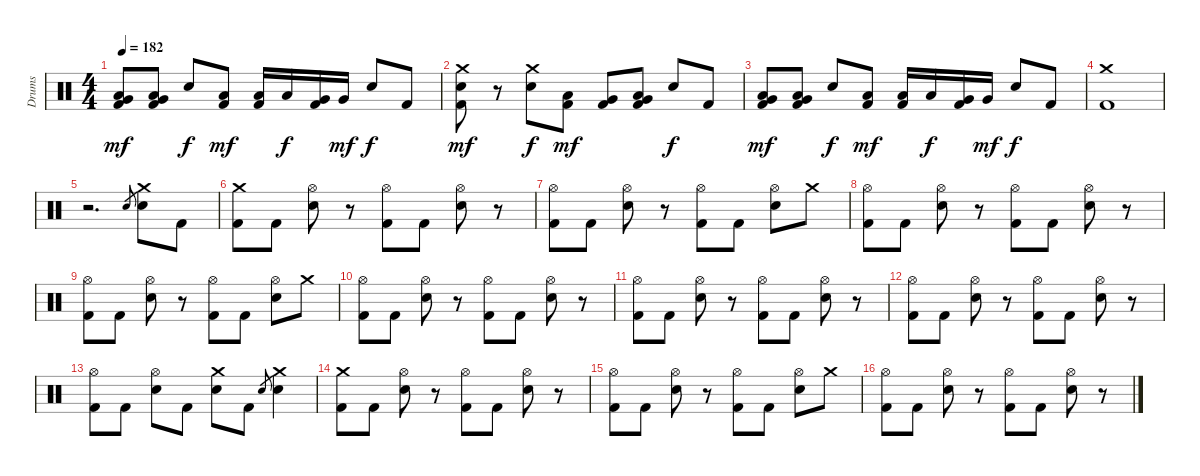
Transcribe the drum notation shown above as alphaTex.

\track ("Drums" "Drums") {instrument percussion}
\staff {score}
\articulation defaults
\ts (4 4)
\tempo 182
\clef neutral
\ks c
("Low Tom (hit)" "Very Low Tom (hit)" "Kick (hit) 2").8{dy mf} ("Low Tom (hit)" "Very Low Tom (hit)" "Kick (hit) 2").8 "Snare (hit) 2".8{dy f} ("Low Tom (hit)" "Kick (hit) 2").8{dy mf} ("Low Tom (hit)" "Kick (hit) 2").16 "Low Tom (hit)".16{dy f} ("Very Low Tom (hit)" "Kick (hit) 2").16 "Very Low Tom (hit)".16{dy mf} "Snare (hit) 2".8{dy f} "Kick (hit) 2".8 |
("Crash medium (hit)" "Snare (hit) 2" "Kick (hit) 2").8{dy mf} r.8 ("Crash medium (hit)" "Snare (hit) 2").8{dy f} ("Low Tom (hit)" "Kick (hit) 2").8{dy mf} ("Very Low Tom (hit)" "Kick (hit) 2").8 ("Low Tom (hit)" "Very Low Tom (hit)" "Kick (hit) 2").8 "Snare (hit) 2".8{dy f} "Kick (hit) 2".8 |
("Low Tom (hit)" "Very Low Tom (hit)" "Kick (hit) 2").8{dy mf} ("Low Tom (hit)" "Very Low Tom (hit)" "Kick (hit) 2").8 "Snare (hit) 2".8{dy f} ("Low Tom (hit)" "Kick (hit) 2").8{dy mf} ("Low Tom (hit)" "Kick (hit) 2").16 "Low Tom (hit)".16{dy f} ("Very Low Tom (hit)" "Kick (hit) 2").16 "Very Low Tom (hit)".16{dy mf} "Snare (hit) 2".8{dy f} "Kick (hit) 2".8 |
("Crash medium (hit)" "Kick (hit) 2").1 |
r.2{d} "Snare (hit) 2".8{gr} ("Crash medium (hit)" "Snare (hit) 2").8 "Kick (hit) 2".8 |
("Crash medium (hit)" "Kick (hit) 2").8 "Kick (hit) 2".8 ("Hi-Hat (open)" "Snare (hit) 2").8 r.8 ("Hi-Hat (open)" "Kick (hit) 2").8 "Kick (hit) 2".8 ("Hi-Hat (open)" "Snare (hit) 2").8 r.8 |
("Hi-Hat (open)" "Kick (hit) 2").8 "Kick (hit) 2".8 ("Hi-Hat (open)" "Snare (hit) 2").8 r.8 ("Hi-Hat (open)" "Kick (hit) 2").8 "Kick (hit) 2".8 ("Hi-Hat (open)" "Snare (hit) 2").8 "Crash medium (hit)".8 |
("Hi-Hat (open)" "Kick (hit) 2").8 "Kick (hit) 2".8 ("Hi-Hat (open)" "Snare (hit) 2").8 r.8 ("Hi-Hat (open)" "Kick (hit) 2").8 "Kick (hit) 2".8 ("Hi-Hat (open)" "Snare (hit) 2").8 r.8 |
("Hi-Hat (open)" "Kick (hit) 2").8 "Kick (hit) 2".8 ("Hi-Hat (open)" "Snare (hit) 2").8 r.8 ("Hi-Hat (open)" "Kick (hit) 2").8 "Kick (hit) 2".8 ("Hi-Hat (open)" "Snare (hit) 2").8 "Crash medium (hit)".8 |
("Hi-Hat (open)" "Kick (hit) 2").8 "Kick (hit) 2".8 ("Hi-Hat (open)" "Snare (hit) 2").8 r.8 ("Hi-Hat (open)" "Kick (hit) 2").8 "Kick (hit) 2".8 ("Hi-Hat (open)" "Snare (hit) 2").8 r.8 |
("Hi-Hat (open)" "Kick (hit) 2").8 "Kick (hit) 2".8 ("Hi-Hat (open)" "Snare (hit) 2").8 r.8 ("Hi-Hat (open)" "Kick (hit) 2").8 "Kick (hit) 2".8 ("Hi-Hat (open)" "Snare (hit) 2").8 r.8 |
("Hi-Hat (open)" "Kick (hit) 2").8 "Kick (hit) 2".8 ("Hi-Hat (open)" "Snare (hit) 2").8 r.8 ("Hi-Hat (open)" "Kick (hit) 2").8 "Kick (hit) 2".8 ("Hi-Hat (open)" "Snare (hit) 2").8 r.8 |
("Hi-Hat (open)" "Kick (hit) 2").8 "Kick (hit) 2".8 ("Hi-Hat (open)" "Snare (hit) 2").8 "Kick (hit) 2".8 ("Crash medium (hit)" "Snare (hit) 2").8 "Kick (hit) 2".8 "Snare (hit) 2".8{gr} ("Crash medium (hit)" "Snare (hit) 2").4 |
("Crash medium (hit)" "Kick (hit) 2").8 "Kick (hit) 2".8 ("Hi-Hat (open)" "Snare (hit) 2").8 r.8 ("Hi-Hat (open)" "Kick (hit) 2").8 "Kick (hit) 2".8 ("Hi-Hat (open)" "Snare (hit) 2").8 r.8 |
("Hi-Hat (open)" "Kick (hit) 2").8 "Kick (hit) 2".8 ("Hi-Hat (open)" "Snare (hit) 2").8 r.8 ("Hi-Hat (open)" "Kick (hit) 2").8 "Kick (hit) 2".8 ("Hi-Hat (open)" "Snare (hit) 2").8 "Crash medium (hit)".8 |
("Hi-Hat (open)" "Kick (hit) 2").8 "Kick (hit) 2".8 ("Hi-Hat (open)" "Snare (hit) 2").8 r.8 ("Hi-Hat (open)" "Kick (hit) 2").8 "Kick (hit) 2".8 ("Hi-Hat (open)" "Snare (hit) 2").8 r.8
